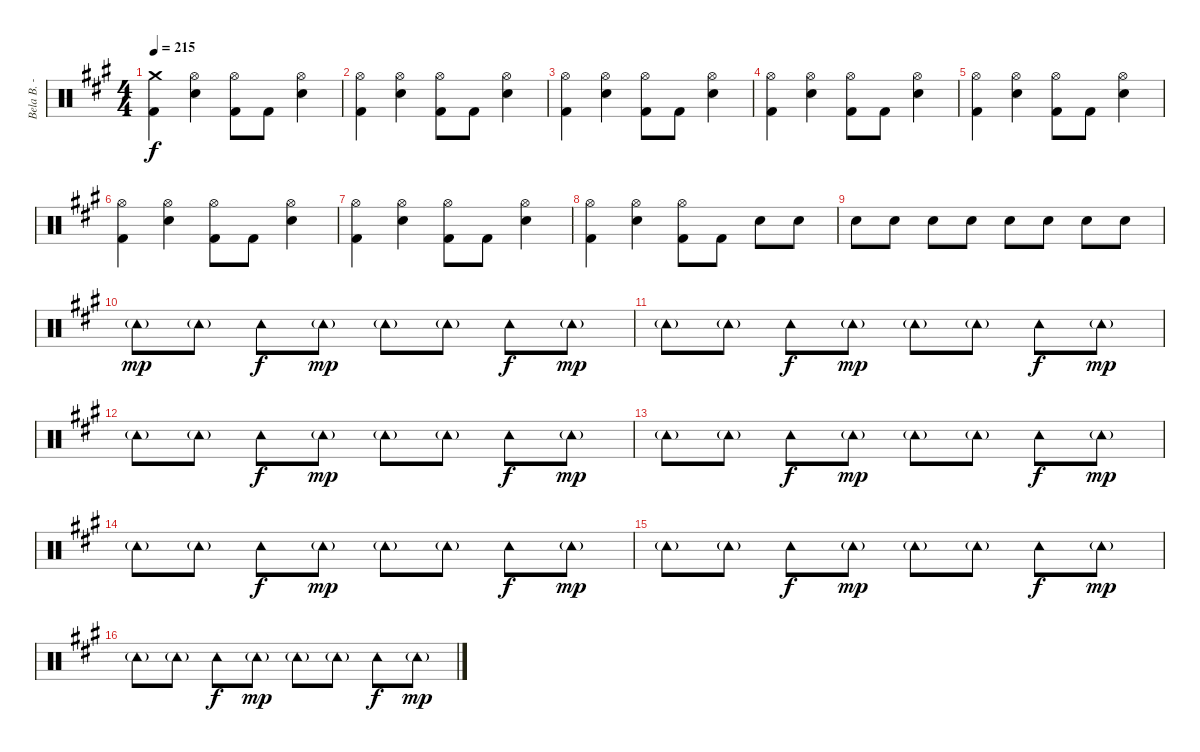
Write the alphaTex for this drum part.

\track ("Bela B. - Schlagzeug" "Bela B. - ") {instrument percussion}
\staff {score}
\articulation defaults
\ts (4 4)
\tempo 215
\clef neutral
\ks a
("Crash medium (hit)" "Kick (hit) 2").4{dy f} ("Hi-Hat (open)" "Snare (hit) 2").4 ("Hi-Hat (open)" "Kick (hit) 2").8 "Kick (hit) 2".8 ("Hi-Hat (open)" "Snare (hit) 2").4 |
("Hi-Hat (open)" "Kick (hit) 2").4 ("Hi-Hat (open)" "Snare (hit) 2").4 ("Hi-Hat (open)" "Kick (hit) 2").8 "Kick (hit) 2".8 ("Hi-Hat (open)" "Snare (hit) 2").4 |
("Hi-Hat (open)" "Kick (hit) 2").4 ("Hi-Hat (open)" "Snare (hit) 2").4 ("Hi-Hat (open)" "Kick (hit) 2").8 "Kick (hit) 2".8 ("Hi-Hat (open)" "Snare (hit) 2").4 |
("Hi-Hat (open)" "Kick (hit) 2").4 ("Hi-Hat (open)" "Snare (hit) 2").4 ("Hi-Hat (open)" "Kick (hit) 2").8 "Kick (hit) 2".8 ("Hi-Hat (open)" "Snare (hit) 2").4 |
("Hi-Hat (open)" "Kick (hit) 2").4 ("Hi-Hat (open)" "Snare (hit) 2").4 ("Hi-Hat (open)" "Kick (hit) 2").8 "Kick (hit) 2".8 ("Hi-Hat (open)" "Snare (hit) 2").4 |
("Hi-Hat (open)" "Kick (hit) 2").4 ("Hi-Hat (open)" "Snare (hit) 2").4 ("Hi-Hat (open)" "Kick (hit) 2").8 "Kick (hit) 2".8 ("Hi-Hat (open)" "Snare (hit) 2").4 |
("Hi-Hat (open)" "Kick (hit) 2").4 ("Hi-Hat (open)" "Snare (hit) 2").4 ("Hi-Hat (open)" "Kick (hit) 2").8 "Kick (hit) 2".8 ("Hi-Hat (open)" "Snare (hit) 2").4 |
("Hi-Hat (open)" "Kick (hit) 2").4 ("Hi-Hat (open)" "Snare (hit) 2").4 ("Hi-Hat (open)" "Kick (hit) 2").8 "Kick (hit) 2".8 "Snare (hit) 2".8 "Snare (hit) 2".8 |
"Snare (hit) 2".8 "Snare (hit) 2".8 "Snare (hit) 2".8 "Snare (hit) 2".8 "Snare (hit) 2".8 "Snare (hit) 2".8 "Snare (hit) 2".8 "Snare (hit) 2".8 |
"Tambourine (hit)"{g}.8{dy mp} "Tambourine (hit)"{g}.8 "Tambourine (hit)".8{dy f} "Tambourine (hit)"{g}.8{dy mp} "Tambourine (hit)"{g}.8 "Tambourine (hit)"{g}.8 "Tambourine (hit)".8{dy f} "Tambourine (hit)"{g}.8{dy mp} |
"Tambourine (hit)"{g}.8 "Tambourine (hit)"{g}.8 "Tambourine (hit)".8{dy f} "Tambourine (hit)"{g}.8{dy mp} "Tambourine (hit)"{g}.8 "Tambourine (hit)"{g}.8 "Tambourine (hit)".8{dy f} "Tambourine (hit)"{g}.8{dy mp} |
"Tambourine (hit)"{g}.8 "Tambourine (hit)"{g}.8 "Tambourine (hit)".8{dy f} "Tambourine (hit)"{g}.8{dy mp} "Tambourine (hit)"{g}.8 "Tambourine (hit)"{g}.8 "Tambourine (hit)".8{dy f} "Tambourine (hit)"{g}.8{dy mp} |
"Tambourine (hit)"{g}.8 "Tambourine (hit)"{g}.8 "Tambourine (hit)".8{dy f} "Tambourine (hit)"{g}.8{dy mp} "Tambourine (hit)"{g}.8 "Tambourine (hit)"{g}.8 "Tambourine (hit)".8{dy f} "Tambourine (hit)"{g}.8{dy mp} |
"Tambourine (hit)"{g}.8 "Tambourine (hit)"{g}.8 "Tambourine (hit)".8{dy f} "Tambourine (hit)"{g}.8{dy mp} "Tambourine (hit)"{g}.8 "Tambourine (hit)"{g}.8 "Tambourine (hit)".8{dy f} "Tambourine (hit)"{g}.8{dy mp} |
"Tambourine (hit)"{g}.8 "Tambourine (hit)"{g}.8 "Tambourine (hit)".8{dy f} "Tambourine (hit)"{g}.8{dy mp} "Tambourine (hit)"{g}.8 "Tambourine (hit)"{g}.8 "Tambourine (hit)".8{dy f} "Tambourine (hit)"{g}.8{dy mp} |
"Tambourine (hit)"{g}.8 "Tambourine (hit)"{g}.8 "Tambourine (hit)".8{dy f} "Tambourine (hit)"{g}.8{dy mp} "Tambourine (hit)"{g}.8 "Tambourine (hit)"{g}.8 "Tambourine (hit)".8{dy f} "Tambourine (hit)"{g}.8{dy mp}
